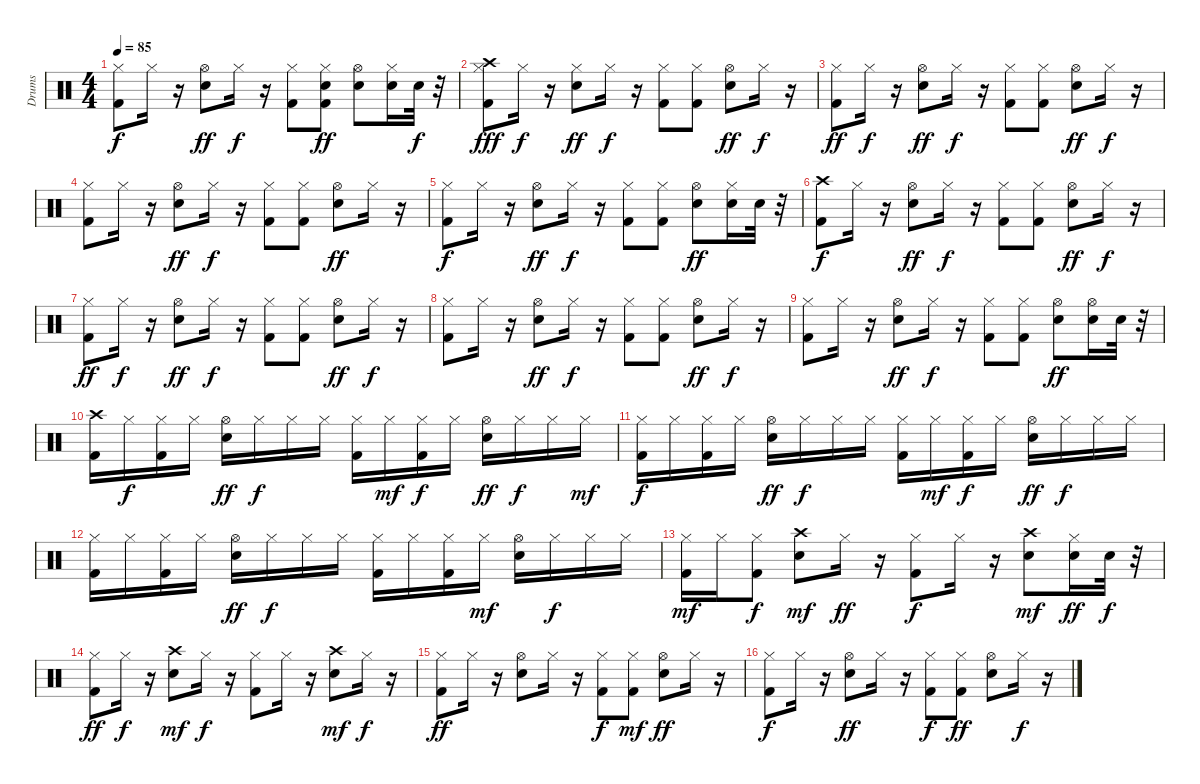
\track ("Drums" "Drums") {instrument percussion}
\staff {score}
\articulation defaults
\ts (4 4)
\tempo 85
\clef neutral
\ks c
("Kick (hit) 2" "Hi-Hat (closed)").8{dy f} "Hi-Hat (closed)".16 r.16 ("Electric Snare (hit)" "Hi-Hat (open)").8{dy ff} "Hi-Hat (closed)".16{dy f} r.16 ("Kick (hit) 2" "Hi-Hat (closed)").8 ("Kick (hit) 2" "Hi-Hat (closed)" "Electric Snare (hit)").8{dy ff} ("Electric Snare (hit)" "Hi-Hat (open)").8 ("Hi-Hat (closed)" "Electric Snare (hit)").16 "Electric Snare (hit)".32{dy f} r.32 |
("Kick (hit) 2" "Hi-Hat (closed)" "Crash high (hit)").8{dy fff} "Hi-Hat (closed)".16{dy f} r.16 ("Electric Snare (hit)" "Hi-Hat (closed)").8{dy ff} "Hi-Hat (closed)".16{dy f} r.16 ("Kick (hit) 2" "Hi-Hat (closed)").8 ("Kick (hit) 2" "Hi-Hat (closed)").8 ("Electric Snare (hit)" "Hi-Hat (open)").8{dy ff} "Hi-Hat (closed)".16{dy f} r.16 |
("Kick (hit) 2" "Hi-Hat (closed)").8{dy ff} "Hi-Hat (closed)".16{dy f} r.16 ("Electric Snare (hit)" "Hi-Hat (open)").8{dy ff} "Hi-Hat (closed)".16{dy f} r.16 ("Kick (hit) 2" "Hi-Hat (closed)").8 ("Kick (hit) 2" "Hi-Hat (closed)").8 ("Electric Snare (hit)" "Hi-Hat (open)").8{dy ff} "Hi-Hat (closed)".16{dy f} r.16 |
("Kick (hit) 2" "Hi-Hat (closed)").8 "Hi-Hat (closed)".16 r.16 ("Electric Snare (hit)" "Hi-Hat (open)").8{dy ff} "Hi-Hat (closed)".16{dy f} r.16 ("Kick (hit) 2" "Hi-Hat (closed)").8 ("Kick (hit) 2" "Hi-Hat (closed)").8 ("Electric Snare (hit)" "Hi-Hat (open)").8{dy ff} "Hi-Hat (closed)".16 r.16 |
("Kick (hit) 2" "Hi-Hat (closed)").8{dy f} "Hi-Hat (closed)".16 r.16 ("Electric Snare (hit)" "Hi-Hat (open)").8{dy ff} "Hi-Hat (closed)".16{dy f} r.16 ("Kick (hit) 2" "Hi-Hat (closed)").8 ("Kick (hit) 2" "Hi-Hat (closed)").8 ("Electric Snare (hit)" "Hi-Hat (open)").8{dy ff} ("Hi-Hat (closed)" "Electric Snare (hit)").16 "Electric Snare (hit)".32 r.32 |
("Kick (hit) 2" "Crash high (hit)").8{dy f} "Hi-Hat (closed)".16 r.16 ("Electric Snare (hit)" "Hi-Hat (open)").8{dy ff} "Hi-Hat (closed)".16{dy f} r.16 ("Kick (hit) 2" "Hi-Hat (closed)").8 ("Kick (hit) 2" "Hi-Hat (closed)").8 ("Electric Snare (hit)" "Hi-Hat (open)").8{dy ff} "Hi-Hat (closed)".16{dy f} r.16 |
("Kick (hit) 2" "Hi-Hat (closed)").8{dy ff} "Hi-Hat (closed)".16{dy f} r.16 ("Electric Snare (hit)" "Hi-Hat (open)").8{dy ff} "Hi-Hat (closed)".16{dy f} r.16 ("Kick (hit) 2" "Hi-Hat (closed)").8 ("Kick (hit) 2" "Hi-Hat (closed)").8 ("Electric Snare (hit)" "Hi-Hat (open)").8{dy ff} "Hi-Hat (closed)".16{dy f} r.16 |
("Kick (hit) 2" "Hi-Hat (closed)").8 "Hi-Hat (closed)".16 r.16 ("Electric Snare (hit)" "Hi-Hat (open)").8{dy ff} "Hi-Hat (closed)".16{dy f} r.16 ("Kick (hit) 2" "Hi-Hat (closed)").8 ("Kick (hit) 2" "Hi-Hat (closed)").8 ("Electric Snare (hit)" "Hi-Hat (open)").8{dy ff} "Hi-Hat (closed)".16{dy f} r.16 |
("Kick (hit) 2" "Hi-Hat (closed)").8 "Hi-Hat (closed)".16 r.16 ("Electric Snare (hit)" "Hi-Hat (open)").8{dy ff} "Hi-Hat (closed)".16{dy f} r.16 ("Kick (hit) 2" "Hi-Hat (closed)").8 ("Kick (hit) 2" "Hi-Hat (closed)").8 ("Electric Snare (hit)" "Hi-Hat (open)").8{dy ff} ("Hi-Hat (open)" "Electric Snare (hit)").16 "Electric Snare (hit)".32 r.32 |
("Kick (hit) 2" "Crash high (hit)").16 "Hi-Hat (closed)".16{dy f} ("Kick (hit) 2" "Hi-Hat (closed)").16 "Hi-Hat (closed)".16 ("Electric Snare (hit)" "Hi-Hat (open)").16{dy ff} "Hi-Hat (closed)".16{dy f} "Hi-Hat (closed)".16 "Hi-Hat (closed)".16 ("Kick (hit) 2" "Hi-Hat (closed)").16 "Hi-Hat (closed)".16{dy mf} ("Kick (hit) 2" "Hi-Hat (closed)").16{dy f} "Hi-Hat (closed)".16 ("Electric Snare (hit)" "Hi-Hat (open)").16{dy ff} "Hi-Hat (closed)".16{dy f} "Hi-Hat (closed)".16 "Hi-Hat (closed)".16{dy mf} |
("Kick (hit) 2" "Hi-Hat (closed)").16{dy f} "Hi-Hat (closed)".16 ("Kick (hit) 2" "Hi-Hat (closed)").16 "Hi-Hat (closed)".16 ("Electric Snare (hit)" "Hi-Hat (open)").16{dy ff} "Hi-Hat (closed)".16{dy f} "Hi-Hat (closed)".16 "Hi-Hat (closed)".16 ("Kick (hit) 2" "Hi-Hat (closed)").16 "Hi-Hat (closed)".16{dy mf} ("Kick (hit) 2" "Hi-Hat (closed)").16{dy f} "Hi-Hat (closed)".16 ("Electric Snare (hit)" "Hi-Hat (open)").16{dy ff} "Hi-Hat (closed)".16{dy f} "Hi-Hat (closed)".16 "Hi-Hat (closed)".16 |
("Kick (hit) 2" "Hi-Hat (closed)").16 "Hi-Hat (closed)".16 ("Kick (hit) 2" "Hi-Hat (closed)").16 "Hi-Hat (closed)".16 ("Electric Snare (hit)" "Hi-Hat (open)").16{dy ff} "Hi-Hat (closed)".16{dy f} "Hi-Hat (closed)".16 "Hi-Hat (closed)".16 ("Kick (hit) 2" "Hi-Hat (closed)").16 "Hi-Hat (closed)".16 ("Kick (hit) 2" "Hi-Hat (closed)").16 "Hi-Hat (closed)".16{dy mf} ("Electric Snare (hit)" "Hi-Hat (open)").16 "Hi-Hat (closed)".16{dy f} "Hi-Hat (closed)".16 "Hi-Hat (closed)".16 |
("Kick (hit) 2" "Hi-Hat (closed)").16{dy mf} "Hi-Hat (closed)".16 ("Kick (hit) 2" "Hi-Hat (closed)").8{dy f} ("Electric Snare (hit)" "Crash high (hit)").8{dy mf} "Hi-Hat (closed)".16{dy ff} r.16 ("Kick (hit) 2" "Hi-Hat (closed)").8{dy f} "Hi-Hat (closed)".16 r.16 ("Electric Snare (hit)" "Crash high (hit)").8{dy mf} ("Hi-Hat (closed)" "Electric Snare (hit)").16{dy ff} "Electric Snare (hit)".32{dy f} r.32 |
("Kick (hit) 2" "Hi-Hat (closed)").8{dy ff} "Hi-Hat (closed)".16{dy f} r.16 ("Electric Snare (hit)" "Crash high (hit)").8{dy mf} "Hi-Hat (closed)".16{dy f} r.16 ("Kick (hit) 2" "Hi-Hat (closed)").8 "Hi-Hat (closed)".16 r.16 ("Electric Snare (hit)" "Crash high (hit)").8{dy mf} "Hi-Hat (closed)".16{dy f} r.16 |
("Kick (hit) 2" "Hi-Hat (closed)").8{dy ff} "Hi-Hat (closed)".16 r.16 ("Electric Snare (hit)" "Hi-Hat (open)").8 "Hi-Hat (closed)".16 r.16 ("Kick (hit) 2" "Hi-Hat (closed)").8{dy f} ("Kick (hit) 2" "Hi-Hat (closed)").8{dy mf} ("Electric Snare (hit)" "Hi-Hat (open)").8{dy ff} "Hi-Hat (closed)".16 r.16 |
("Kick (hit) 2" "Hi-Hat (closed)").8{dy f} "Hi-Hat (closed)".16 r.16 ("Electric Snare (hit)" "Hi-Hat (open)").8{dy ff} "Hi-Hat (closed)".16 r.16 ("Kick (hit) 2" "Hi-Hat (closed)").8{dy f} ("Kick (hit) 2" "Hi-Hat (closed)").8{dy ff} ("Electric Snare (hit)" "Hi-Hat (open)").8 "Hi-Hat (closed)".16{dy f} r.16
